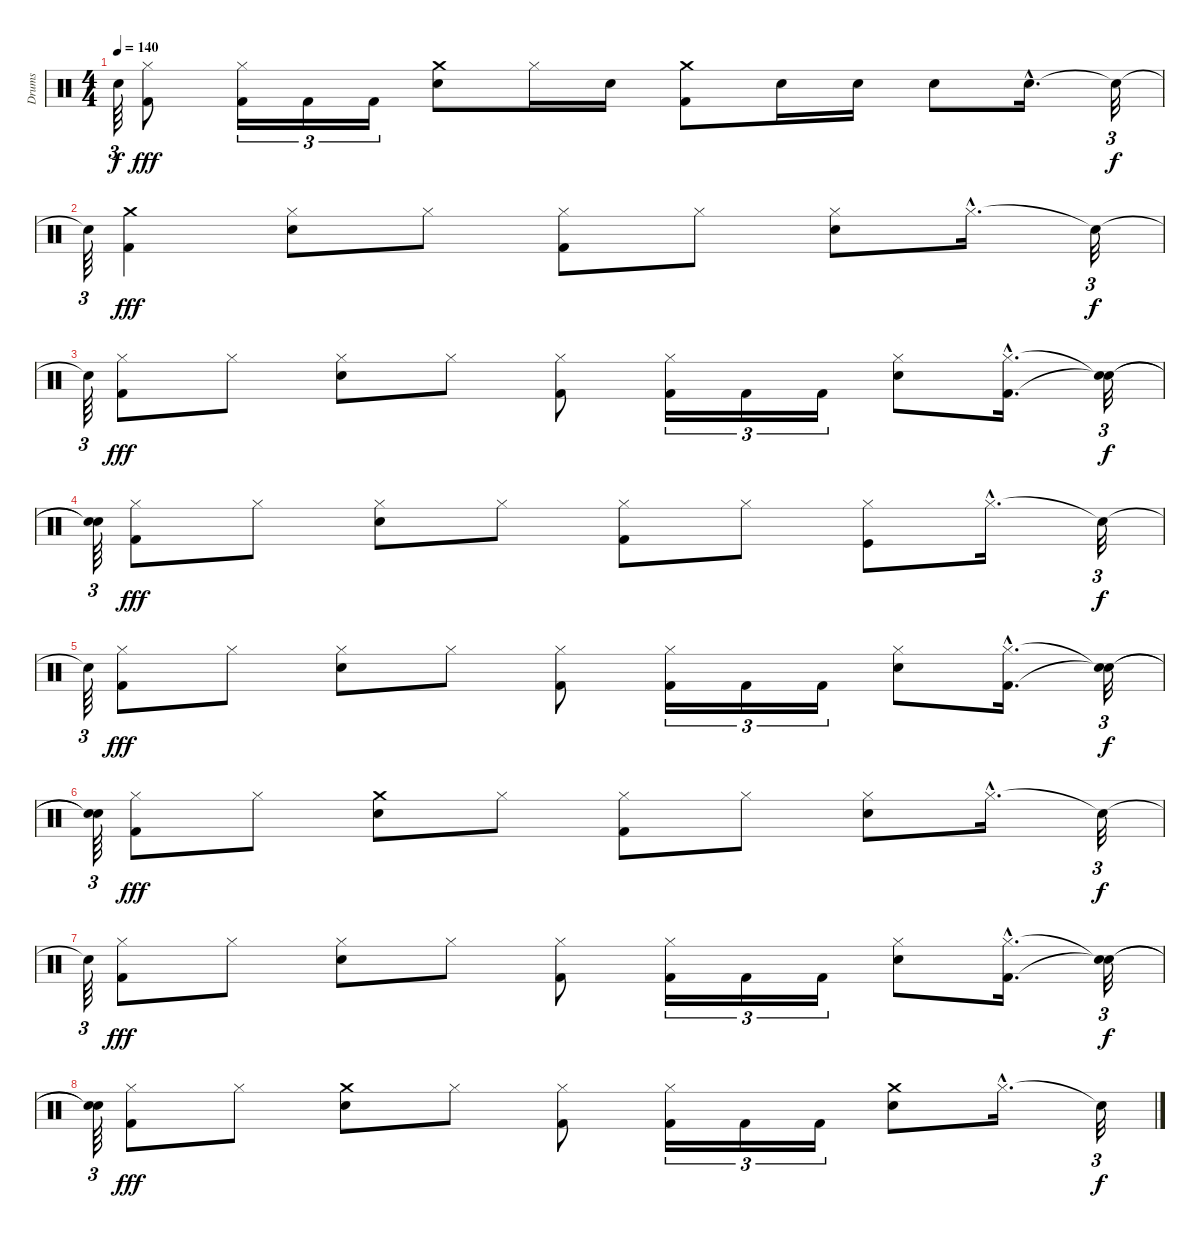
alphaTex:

\track ("Drums" "Drums") {instrument percussion}
\staff {score}
\articulation defaults
\ts (4 4)
\tempo 140
\clef neutral
\ks c "Snare (hit)"{t}.64{tu (3 2) dy f}
("Hi-Hat (closed)" "Kick (hit) 2").8{dy fff} ("Hi-Hat (closed)" "Kick (hit) 2").16{tu (3 2)} "Kick (hit) 2".16{tu (3 2)} "Kick (hit) 2".16{tu (3 2)} ("Snare (hit) 2" "Crash medium (hit)").8 "Hi-Hat (closed)".16 "Snare (hit) 2".16 ("Kick (hit) 2" "Crash medium (hit)").8 "Snare (hit) 2".16 "Snare (hit) 2".16 "Snare (hit) 2".8 "Snare (hit) 2"{hac}.16{d} "Snare (hit)"{t}.32{tu (3 2) dy f} |
"Snare (hit)"{t}.64{tu (3 2)} ("Kick (hit) 2" "Crash medium (hit)").4{dy fff} ("Snare (hit) 2" "Hi-Hat (closed)").8 "Hi-Hat (closed)".8 ("Hi-Hat (closed)" "Kick (hit) 2").8 "Hi-Hat (closed)".8 ("Snare (hit) 2" "Hi-Hat (closed)").8 "Hi-Hat (closed)"{hac}.16{d} "Snare (hit)"{t}.32{tu (3 2) dy f} |
"Snare (hit)"{t}.64{tu (3 2)} ("Hi-Hat (closed)" "Kick (hit) 2").8{dy fff} "Hi-Hat (closed)".8 ("Snare (hit) 2" "Hi-Hat (closed)").8 "Hi-Hat (closed)".8 ("Kick (hit) 2" "Hi-Hat (closed)").8 ("Kick (hit) 2" "Hi-Hat (closed)").16{tu (3 2)} "Kick (hit) 2".16{tu (3 2)} "Kick (hit) 2".16{tu (3 2)} ("Snare (hit) 2" "Hi-Hat (closed)").8 ("Kick (hit) 2"{hac} "Hi-Hat (closed)"{hac}).16{d} ("Snare (hit)"{t} "Snare (hit)"{t}).32{tu (3 2) dy f} |
("Snare (hit)"{t} "Snare (hit)"{t}).64{tu (3 2)} ("Kick (hit) 2" "Hi-Hat (closed)").8{dy fff} "Hi-Hat (closed)".8 ("Snare (hit) 2" "Hi-Hat (closed)").8 "Hi-Hat (closed)".8 ("Kick (hit) 2" "Hi-Hat (closed)").8 "Hi-Hat (closed)".8 ("Kick (hit)" "Hi-Hat (closed)").8 "Hi-Hat (closed)"{hac}.16{d} "Snare (hit)"{t}.32{tu (3 2) dy f} |
"Snare (hit)"{t}.64{tu (3 2)} ("Hi-Hat (closed)" "Kick (hit) 2").8{dy fff} "Hi-Hat (closed)".8 ("Snare (hit) 2" "Hi-Hat (closed)").8 "Hi-Hat (closed)".8 ("Kick (hit) 2" "Hi-Hat (closed)").8 ("Kick (hit) 2" "Hi-Hat (closed)").16{tu (3 2)} "Kick (hit) 2".16{tu (3 2)} "Kick (hit) 2".16{tu (3 2)} ("Snare (hit) 2" "Hi-Hat (closed)").8 ("Kick (hit) 2"{hac} "Hi-Hat (closed)"{hac}).16{d} ("Snare (hit)"{t} "Snare (hit)"{t}).32{tu (3 2) dy f} |
("Snare (hit)"{t} "Snare (hit)"{t}).64{tu (3 2)} ("Hi-Hat (closed)" "Kick (hit) 2").8{dy fff} "Hi-Hat (closed)".8 ("Crash medium (hit)" "Snare (hit) 2").8 "Hi-Hat (closed)".8 ("Hi-Hat (closed)" "Kick (hit) 2").8 "Hi-Hat (closed)".8 ("Snare (hit) 2" "Hi-Hat (closed)").8 "Hi-Hat (closed)"{hac}.16{d} "Snare (hit)"{t}.32{tu (3 2) dy f} |
"Snare (hit)"{t}.64{tu (3 2)} ("Hi-Hat (closed)" "Kick (hit) 2").8{dy fff} "Hi-Hat (closed)".8 ("Snare (hit) 2" "Hi-Hat (closed)").8 "Hi-Hat (closed)".8 ("Kick (hit) 2" "Hi-Hat (closed)").8 ("Kick (hit) 2" "Hi-Hat (closed)").16{tu (3 2)} "Kick (hit) 2".16{tu (3 2)} "Kick (hit) 2".16{tu (3 2)} ("Snare (hit) 2" "Hi-Hat (closed)").8 ("Kick (hit) 2"{hac} "Hi-Hat (closed)"{hac}).16{d} ("Snare (hit)"{t} "Snare (hit)"{t}).32{tu (3 2) dy f} |
("Snare (hit)"{t} "Snare (hit)"{t}).64{tu (3 2)} ("Kick (hit) 2" "Hi-Hat (closed)").8{dy fff} "Hi-Hat (closed)".8 ("Snare (hit) 2" "Crash medium (hit)").8 "Hi-Hat (closed)".8 ("Kick (hit) 2" "Hi-Hat (closed)").8 ("Kick (hit) 2" "Hi-Hat (closed)").16{tu (3 2)} "Kick (hit) 2".16{tu (3 2)} "Kick (hit) 2".16{tu (3 2)} ("Crash medium (hit)" "Snare (hit) 2").8 "Hi-Hat (closed)"{hac}.16{d} "Snare (hit)"{t}.32{tu (3 2) dy f}
